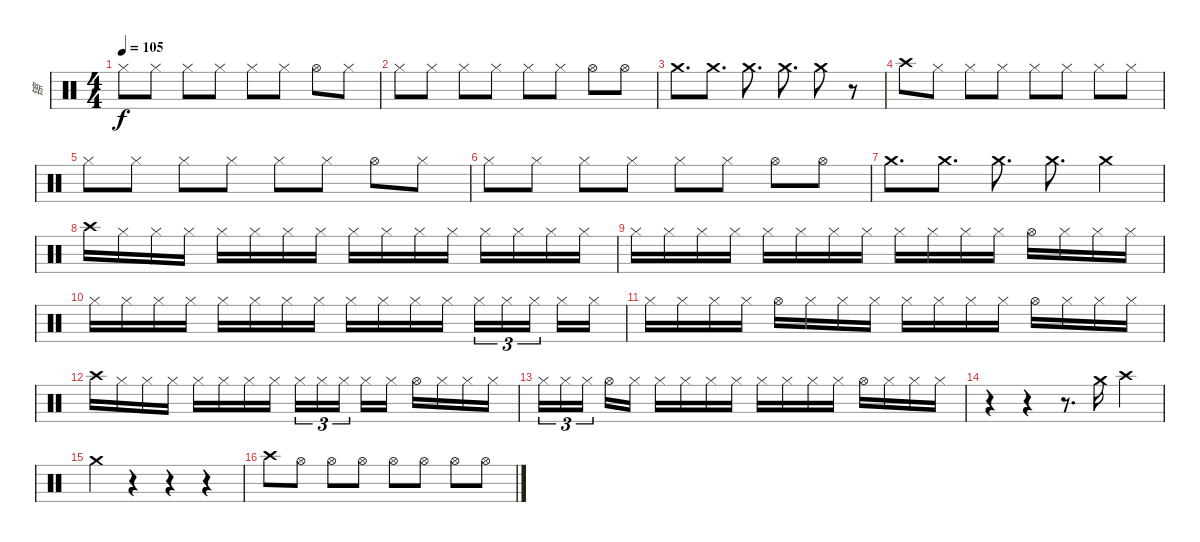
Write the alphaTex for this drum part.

\track ("镲" "镲") {instrument percussion}
\staff {score}
\articulation defaults
\ts (4 4)
\tempo 105
\clef neutral
\ks c "Hi-Hat (closed)".8{dy f} "Hi-Hat (closed)".8 "Hi-Hat (closed)".8 "Hi-Hat (closed)".8 "Hi-Hat (closed)".8 "Hi-Hat (closed)".8 "Hi-Hat (open)".8 "Hi-Hat (closed)".8
|
"Hi-Hat (closed)".8 "Hi-Hat (closed)".8 "Hi-Hat (closed)".8 "Hi-Hat (closed)".8 "Hi-Hat (closed)".8 "Hi-Hat (closed)".8 "Hi-Hat (open)".8 "Hi-Hat (open)".8 |
"Crash medium (hit)".8{d} "Crash medium (hit)".8{d} "Crash medium (hit)".8{d} "Crash medium (hit)".8{d} "Crash medium (hit)".8 r.8 |
"Crash high (hit)".8 "Hi-Hat (closed)".8 "Hi-Hat (closed)".8 "Hi-Hat (closed)".8 "Hi-Hat (closed)".8 "Hi-Hat (closed)".8 "Hi-Hat (closed)".8 "Hi-Hat (closed)".8 |
"Hi-Hat (closed)".8 "Hi-Hat (closed)".8 "Hi-Hat (closed)".8 "Hi-Hat (closed)".8 "Hi-Hat (closed)".8 "Hi-Hat (closed)".8 "Hi-Hat (open)".8 "Hi-Hat (closed)".8 |
"Hi-Hat (closed)".8 "Hi-Hat (closed)".8 "Hi-Hat (closed)".8 "Hi-Hat (closed)".8 "Hi-Hat (closed)".8 "Hi-Hat (closed)".8 "Hi-Hat (open)".8 "Hi-Hat (open)".8 |
"Crash medium (hit)".8{d} "Crash medium (hit)".8{d} "Crash medium (hit)".8{d} "Crash medium (hit)".8{d} "Crash medium (hit)".4 |
"Crash high (hit)".16 "Hi-Hat (closed)".16 "Hi-Hat (closed)".16 "Hi-Hat (closed)".16 "Hi-Hat (closed)".16 "Hi-Hat (closed)".16 "Hi-Hat (closed)".16 "Hi-Hat (closed)".16 "Hi-Hat (closed)".16 "Hi-Hat (closed)".16 "Hi-Hat (closed)".16 "Hi-Hat (closed)".16 "Hi-Hat (closed)".16 "Hi-Hat (closed)".16 "Hi-Hat (closed)".16 "Hi-Hat (closed)".16 |
"Hi-Hat (closed)".16 "Hi-Hat (closed)".16 "Hi-Hat (closed)".16 "Hi-Hat (closed)".16 "Hi-Hat (closed)".16 "Hi-Hat (closed)".16 "Hi-Hat (closed)".16 "Hi-Hat (closed)".16 "Hi-Hat (closed)".16 "Hi-Hat (closed)".16 "Hi-Hat (closed)".16 "Hi-Hat (closed)".16 "Hi-Hat (open)".16 "Hi-Hat (closed)".16 "Hi-Hat (closed)".16 "Hi-Hat (closed)".16 |
"Hi-Hat (closed)".16 "Hi-Hat (closed)".16 "Hi-Hat (closed)".16 "Hi-Hat (closed)".16 "Hi-Hat (closed)".16 "Hi-Hat (closed)".16 "Hi-Hat (closed)".16 "Hi-Hat (closed)".16 "Hi-Hat (closed)".16 "Hi-Hat (closed)".16 "Hi-Hat (closed)".16 "Hi-Hat (closed)".16 "Hi-Hat (closed)".16{tu (3 2)} "Hi-Hat (closed)".16{tu (3 2)} "Hi-Hat (closed)".16{tu (3 2) beam splitsecondary} "Hi-Hat (closed)".16 "Hi-Hat (closed)".16 |
"Hi-Hat (closed)".16 "Hi-Hat (closed)".16 "Hi-Hat (closed)".16 "Hi-Hat (closed)".16 "Hi-Hat (open)".16 "Hi-Hat (closed)".16 "Hi-Hat (closed)".16 "Hi-Hat (closed)".16 "Hi-Hat (closed)".16 "Hi-Hat (closed)".16 "Hi-Hat (closed)".16 "Hi-Hat (closed)".16 "Hi-Hat (open)".16 "Hi-Hat (closed)".16 "Hi-Hat (closed)".16 "Hi-Hat (closed)".16 |
"Crash high (hit)".16 "Hi-Hat (closed)".16 "Hi-Hat (closed)".16 "Hi-Hat (closed)".16 "Hi-Hat (closed)".16 "Hi-Hat (closed)".16 "Hi-Hat (closed)".16 "Hi-Hat (closed)".16 "Hi-Hat (closed)".16{tu (3 2)} "Hi-Hat (closed)".16{tu (3 2)} "Hi-Hat (closed)".16{tu (3 2) beam splitsecondary} "Hi-Hat (closed)".16 "Hi-Hat (closed)".16 "Hi-Hat (open)".16 "Hi-Hat (closed)".16 "Hi-Hat (closed)".16 "Hi-Hat (closed)".16 |
"Hi-Hat (closed)".16{tu (3 2)} "Hi-Hat (closed)".16{tu (3 2)} "Hi-Hat (closed)".16{tu (3 2) beam splitsecondary} "Hi-Hat (open)".16 "Hi-Hat (closed)".16 "Hi-Hat (closed)".16 "Hi-Hat (closed)".16 "Hi-Hat (closed)".16 "Hi-Hat (closed)".16 "Hi-Hat (closed)".16 "Hi-Hat (closed)".16 "Hi-Hat (closed)".16 "Hi-Hat (closed)".16 "Hi-Hat (open)".16 "Hi-Hat (closed)".16 "Hi-Hat (closed)".16 "Hi-Hat (closed)".16 |
r.4 r.4 r.8{d} "Crash medium (hit)".16 "Crash high (hit)".4 |
"Crash medium (hit)".4 r.4 r.4 r.4 |
"Crash high (hit)".8 "Hi-Hat (open)".8 "Hi-Hat (open)".8 "Hi-Hat (open)".8 "Hi-Hat (open)".8 "Hi-Hat (open)".8 "Hi-Hat (open)".8 "Hi-Hat (open)".8
